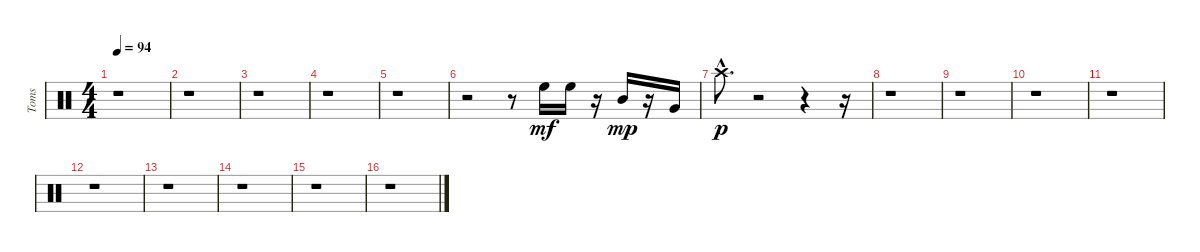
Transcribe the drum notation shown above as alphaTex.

\track ("Toms" "Toms") {instrument percussion}
\staff {score}
\articulation defaults
\ts (4 4)
\tempo 94
\clef neutral
\ks c
r.1{dy p} |
r.1 |
r.1 |
r.1 |
r.1 |
r.2 r.8 "High Floor Tom (hit)".16{dy mf} "High Floor Tom (hit)".16 r.16 "Mid Tom (hit)".16{dy mp} r.16 "Very Low Tom (hit)".16 |
"Crash high (hit)"{hac}.8{d dy p} r.2 r.4 r.16 |
r.1 |
r.1 |
r.1 |
r.1 |
r.1 |
r.1 |
r.1 |
r.1 |
r.1
